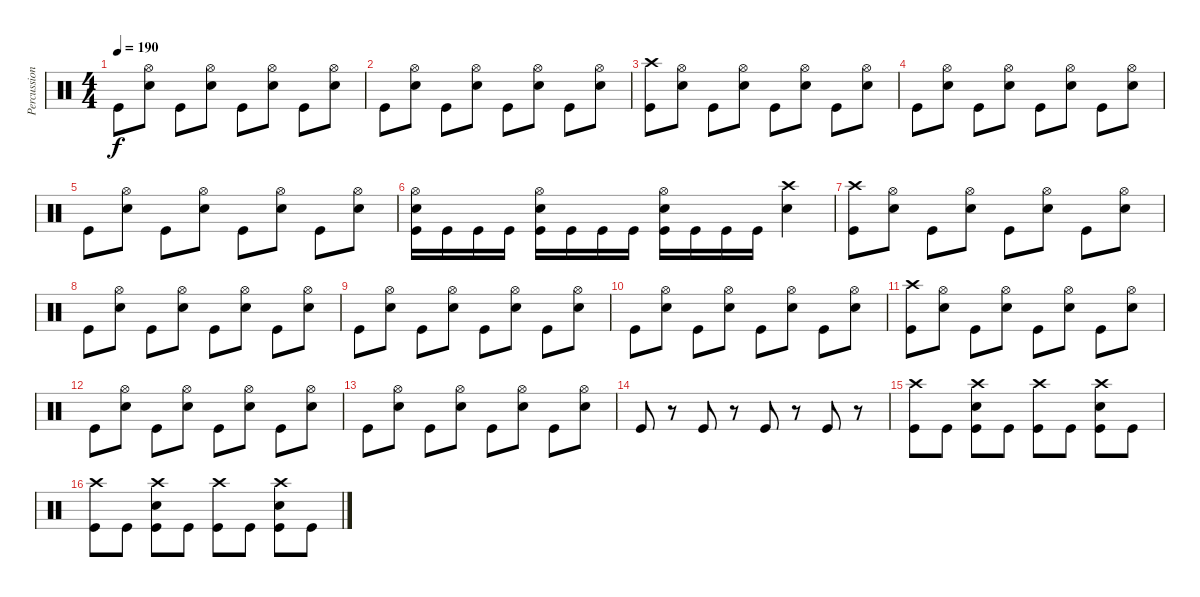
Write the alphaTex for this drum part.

\track ("Percussion" "Percussion") {instrument percussion}
\staff {score}
\articulation defaults
\ts (4 4)
\tempo 190
\clef neutral
\ks c "Kick (hit)".8{dy f}
("Electric Snare (hit)" "Hi-Hat (open)").8 "Kick (hit)".8 ("Electric Snare (hit)" "Hi-Hat (open)").8 "Kick (hit)".8 ("Electric Snare (hit)" "Hi-Hat (open)").8 "Kick (hit)".8 ("Electric Snare (hit)" "Hi-Hat (open)").8 |
"Kick (hit)".8 ("Electric Snare (hit)" "Hi-Hat (open)").8 "Kick (hit)".8 ("Electric Snare (hit)" "Hi-Hat (open)").8 "Kick (hit)".8 ("Electric Snare (hit)" "Hi-Hat (open)").8 "Kick (hit)".8 ("Electric Snare (hit)" "Hi-Hat (open)").8 |
("Kick (hit)" "Crash high (hit)").8 ("Electric Snare (hit)" "Hi-Hat (open)").8 "Kick (hit)".8 ("Electric Snare (hit)" "Hi-Hat (open)").8 "Kick (hit)".8 ("Electric Snare (hit)" "Hi-Hat (open)").8 "Kick (hit)".8 ("Electric Snare (hit)" "Hi-Hat (open)").8 |
"Kick (hit)".8 ("Electric Snare (hit)" "Hi-Hat (open)").8 "Kick (hit)".8 ("Electric Snare (hit)" "Hi-Hat (open)").8 "Kick (hit)".8 ("Electric Snare (hit)" "Hi-Hat (open)").8 "Kick (hit)".8 ("Electric Snare (hit)" "Hi-Hat (open)").8 |
"Kick (hit)".8 ("Electric Snare (hit)" "Hi-Hat (open)").8 "Kick (hit)".8 ("Electric Snare (hit)" "Hi-Hat (open)").8 "Kick (hit)".8 ("Electric Snare (hit)" "Hi-Hat (open)").8 "Kick (hit)".8 ("Electric Snare (hit)" "Hi-Hat (open)").8 |
("Kick (hit)" "Electric Snare (hit)" "Hi-Hat (open)").16 "Kick (hit)".16 "Kick (hit)".16 "Kick (hit)".16 ("Kick (hit)" "Electric Snare (hit)" "Hi-Hat (open)").16 "Kick (hit)".16 "Kick (hit)".16 "Kick (hit)".16 ("Kick (hit)" "Electric Snare (hit)" "Hi-Hat (open)").16 "Kick (hit)".16 "Kick (hit)".16 "Kick (hit)".16 ("Electric Snare (hit)" "Crash high (hit)").4 |
("Kick (hit)" "Crash high (hit)").8 ("Electric Snare (hit)" "Hi-Hat (open)").8 "Kick (hit)".8 ("Electric Snare (hit)" "Hi-Hat (open)").8 "Kick (hit)".8 ("Electric Snare (hit)" "Hi-Hat (open)").8 "Kick (hit)".8 ("Electric Snare (hit)" "Hi-Hat (open)").8 |
"Kick (hit)".8 ("Electric Snare (hit)" "Hi-Hat (open)").8 "Kick (hit)".8 ("Electric Snare (hit)" "Hi-Hat (open)").8 "Kick (hit)".8 ("Electric Snare (hit)" "Hi-Hat (open)").8 "Kick (hit)".8 ("Electric Snare (hit)" "Hi-Hat (open)").8 |
"Kick (hit)".8 ("Electric Snare (hit)" "Hi-Hat (open)").8 "Kick (hit)".8 ("Electric Snare (hit)" "Hi-Hat (open)").8 "Kick (hit)".8 ("Electric Snare (hit)" "Hi-Hat (open)").8 "Kick (hit)".8 ("Electric Snare (hit)" "Hi-Hat (open)").8 |
"Kick (hit)".8 ("Electric Snare (hit)" "Hi-Hat (open)").8 "Kick (hit)".8 ("Electric Snare (hit)" "Hi-Hat (open)").8 "Kick (hit)".8 ("Electric Snare (hit)" "Hi-Hat (open)").8 "Kick (hit)".8 ("Electric Snare (hit)" "Hi-Hat (open)").8 |
("Kick (hit)" "Crash high (hit)").8 ("Electric Snare (hit)" "Hi-Hat (open)").8 "Kick (hit)".8 ("Electric Snare (hit)" "Hi-Hat (open)").8 "Kick (hit)".8 ("Electric Snare (hit)" "Hi-Hat (open)").8 "Kick (hit)".8 ("Electric Snare (hit)" "Hi-Hat (open)").8 |
"Kick (hit)".8 ("Electric Snare (hit)" "Hi-Hat (open)").8 "Kick (hit)".8 ("Electric Snare (hit)" "Hi-Hat (open)").8 "Kick (hit)".8 ("Electric Snare (hit)" "Hi-Hat (open)").8 "Kick (hit)".8 ("Electric Snare (hit)" "Hi-Hat (open)").8 |
"Kick (hit)".8 ("Electric Snare (hit)" "Hi-Hat (open)").8 "Kick (hit)".8 ("Electric Snare (hit)" "Hi-Hat (open)").8 "Kick (hit)".8 ("Electric Snare (hit)" "Hi-Hat (open)").8 "Kick (hit)".8 ("Electric Snare (hit)" "Hi-Hat (open)").8 |
"Kick (hit)".8 r.8 "Kick (hit)".8 r.8 "Kick (hit)".8 r.8 "Kick (hit)".8 r.8 |
("Kick (hit)" "Crash high (hit)").8 "Kick (hit)".8 ("Kick (hit)" "Electric Snare (hit)" "Crash high (hit)").8 "Kick (hit)".8 ("Kick (hit)" "Crash high (hit)").8 "Kick (hit)".8 ("Kick (hit)" "Electric Snare (hit)" "Crash high (hit)").8 "Kick (hit)".8 |
("Kick (hit)" "Crash high (hit)").8 "Kick (hit)".8 ("Kick (hit)" "Electric Snare (hit)" "Crash high (hit)").8 "Kick (hit)".8 ("Kick (hit)" "Crash high (hit)").8 "Kick (hit)".8 ("Kick (hit)" "Electric Snare (hit)" "Crash high (hit)").8 "Kick (hit)".8
